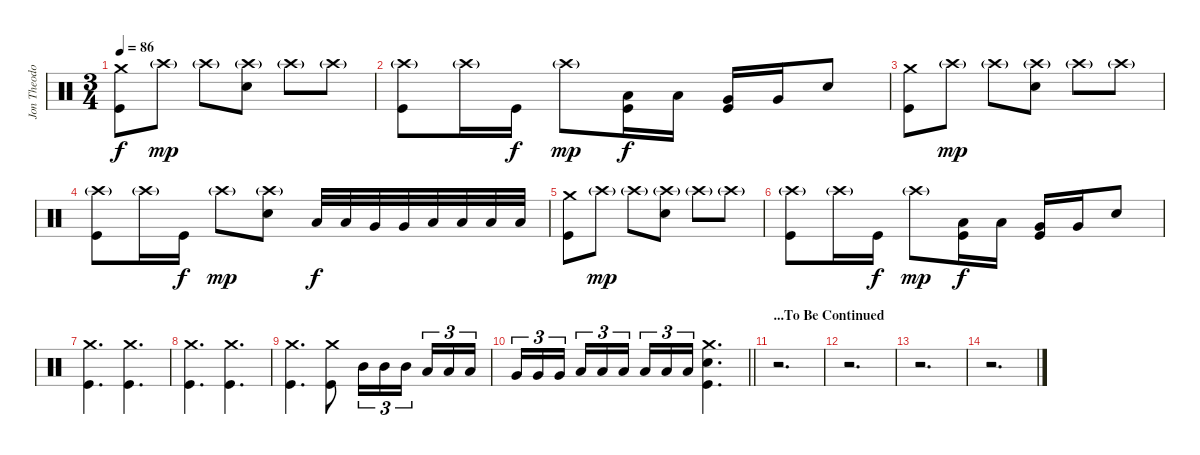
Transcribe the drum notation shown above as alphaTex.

\track ("Jon Theodore" "Jon Theodo") {instrument percussion}
\staff {score}
\articulation defaults
\ts (3 4)
\tempo 86
\clef neutral
\ks c
("Crash medium (hit)" "Kick (hit)").8{dy f} "Crash high (hit)"{g}.8{dy mp} "Crash high (hit)"{g}.8 ("Crash high (hit)"{g} "Snare (hit) 2").8 "Crash high (hit)"{g}.8 "Crash high (hit)"{g}.8 |
("Crash high (hit)"{g} "Kick (hit)").8 "Crash high (hit)"{g}.16 "Kick (hit)".16{dy f} "Crash high (hit)"{g}.8{dy mp} ("Low Tom (hit)" "Kick (hit)").16{dy f} "Low Tom (hit)".16 ("Very Low Tom (hit)" "Kick (hit)").16 "Very Low Tom (hit)".16 "Snare (hit) 2".8 |
("Crash medium (hit)" "Kick (hit)").8 "Crash high (hit)"{g}.8{dy mp} "Crash high (hit)"{g}.8 ("Crash high (hit)"{g} "Snare (hit) 2").8 "Crash high (hit)"{g}.8 "Crash high (hit)"{g}.8 |
("Crash high (hit)"{g} "Kick (hit)").8 "Crash high (hit)"{g}.16 "Kick (hit)".16{dy f} "Crash high (hit)"{g}.8{dy mp} ("Crash high (hit)"{g} "Snare (hit) 2").8 "Low Tom (hit)".32{dy f} "Low Tom (hit)".32 "Very Low Tom (hit)".32 "Very Low Tom (hit)".32 "Low Floor Tom (hit)".32 "Low Floor Tom (hit)".32 "Low Floor Tom (hit)".32 "Low Floor Tom (hit)".32 |
("Crash medium (hit)" "Kick (hit)").8 "Crash high (hit)"{g}.8{dy mp} "Crash high (hit)"{g}.8 ("Crash high (hit)"{g} "Snare (hit) 2").8 "Crash high (hit)"{g}.8 "Crash high (hit)"{g}.8 |
("Crash high (hit)"{g} "Kick (hit)").8 "Crash high (hit)"{g}.16 "Kick (hit)".16{dy f} "Crash high (hit)"{g}.8{dy mp} ("Low Tom (hit)" "Kick (hit)").16{dy f} "Low Tom (hit)".16 ("Very Low Tom (hit)" "Kick (hit)").16 "Very Low Tom (hit)".16 "Snare (hit) 2".8 |
("Crash medium (hit)" "Kick (hit)").4{d} ("Crash medium (hit)" "Kick (hit)").4{d} |
("Crash medium (hit)" "Kick (hit)").4{d} ("Crash medium (hit)" "Kick (hit)").4{d} |
("Crash medium (hit)" "Kick (hit)").4{d} ("Crash medium (hit)" "Kick (hit)").8 "Mid Tom (hit)".16{tu (3 2)} "Mid Tom (hit)".16{tu (3 2)} "Mid Tom (hit)".16{tu (3 2) beam splitsecondary} "Low Tom (hit)".16{tu (3 2)} "Low Tom (hit)".16{tu (3 2)} "Low Tom (hit)".16{tu (3 2)} |
\barLineRight lightlight "Very Low Tom (hit)".16{tu (3 2)} "Very Low Tom (hit)".16{tu (3 2)} "Very Low Tom (hit)".16{tu (3 2) beam splitsecondary} "Low Floor Tom (hit)".16{tu (3 2)} "Low Floor Tom (hit)".16{tu (3 2)} "Low Floor Tom (hit)".16{tu (3 2)} "Low Floor Tom (hit)".16{tu (3 2)} "Low Floor Tom (hit)".16{tu (3 2)} "Low Floor Tom (hit)".16{tu (3 2)}
("Crash medium (hit)" "Snare (hit) 2" "Kick (hit)").4{d} |
\section ("" "...To Be Continued ")
r.2{d} |
r.2{d} |
r.2{d} |
r.2{d}
